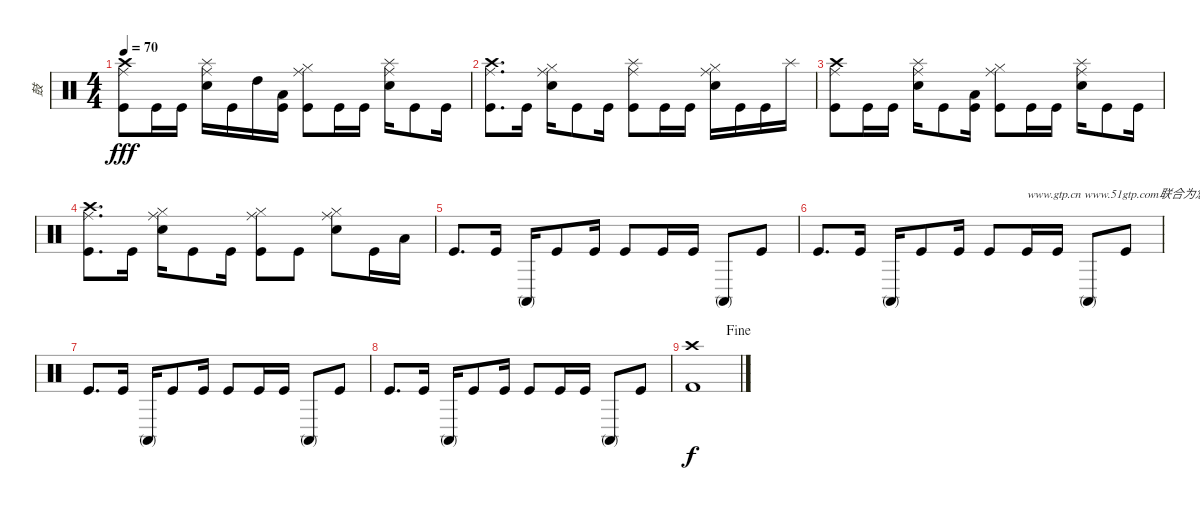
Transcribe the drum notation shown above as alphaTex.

\track ("鼓" "鼓") {instrument percussion}
\staff {score}
\articulation defaults
\ts (4 4)
\tempo 70
\clef neutral
\ks c
("Ride (middle)" "Crash high (hit)" "Kick (hit)").8{dy fff} "Kick (hit)".16 "Kick (hit)".16 ("Ride (middle)" "Splash (hit)" "Electric Snare (hit)").16 "Kick (hit)".16 "High Tom (hit)".16 ("Low Tom (hit)" "Kick (hit)").16 ("Ride (middle)" "Hi-Hat (closed)" "Kick (hit)").8 "Kick (hit)".16 "Kick (hit)".16 ("Ride (middle)" "Splash (hit)" "Electric Snare (hit)").16 "Kick (hit)".8 "Kick (hit)".16 |
("Ride (middle)" "Crash high (hit)" "Kick (hit)").8{d} "Kick (hit)".16 ("Ride (middle)" "Hi-Hat (closed)" "Electric Snare (hit)").16 "Kick (hit)".8 "Kick (hit)".16 ("Ride (middle)" "Splash (hit)" "Kick (hit)").8 "Kick (hit)".16 "Kick (hit)".16 ("Ride (middle)" "Hi-Hat (closed)" "Electric Snare (hit)").16 "Kick (hit)".16 "Kick (hit)".16 "Splash (hit)".16 |
("Ride (middle)" "Crash high (hit)" "Kick (hit)").8 "Kick (hit)".16 "Kick (hit)".16 ("Ride (middle)" "Splash (hit)" "Electric Snare (hit)").16 "Kick (hit)".8 ("Low Tom (hit)" "Kick (hit)").16 ("Ride (middle)" "Hi-Hat (closed)" "Kick (hit)").8 "Kick (hit)".16 "Kick (hit)".16 ("Ride (middle)" "Splash (hit)" "Electric Snare (hit)").16 "Kick (hit)".8 "Kick (hit)".16 |
("Ride (middle)" "Crash high (hit)" "Kick (hit)").8{d} "Kick (hit)".16 ("Ride (middle)" "Hi-Hat (closed)" "Electric Snare (hit)").16 "Kick (hit)".8 "Kick (hit)".16 ("Ride (middle)" "Hi-Hat (closed)" "Kick (hit)").8 "Kick (hit)".8 ("Ride (middle)" "Hi-Hat (closed)" "Electric Snare (hit)").8 "Kick (hit)".16 "Low Tom (hit)".16 |
"Kick (hit)".8{d} "Kick (hit)".16 "Conga high (mute)".16 "Kick (hit)".8 "Kick (hit)".16 "Kick (hit)".8 "Kick (hit)".16 "Kick (hit)".16 "Conga high (mute)".8 "Kick (hit)".8 |
"Kick (hit)".8{d} "Kick (hit)".16 "Conga high (mute)".16 "Kick (hit)".8 "Kick (hit)".16 "Kick (hit)".8 "Kick (hit)".16{txt "www.gtp.cn www.51gtp.com联合为您提供优秀的GTP!"} "Kick (hit)".16 "Conga high (mute)".8 "Kick (hit)".8 |
"Kick (hit)".8{d} "Kick (hit)".16 "Conga high (mute)".16 "Kick (hit)".8 "Kick (hit)".16 "Kick (hit)".8 "Kick (hit)".16 "Kick (hit)".16 "Conga high (mute)".8 "Kick (hit)".8 |
"Kick (hit)".8{d} "Kick (hit)".16 "Conga high (mute)".16 "Kick (hit)".8 "Kick (hit)".16 "Kick (hit)".8 "Kick (hit)".16 "Kick (hit)".16 "Conga high (mute)".8 "Kick (hit)".8 |
\jump fine
("Crash high (hit)" "Kick (hit) 2").1{dy f}
